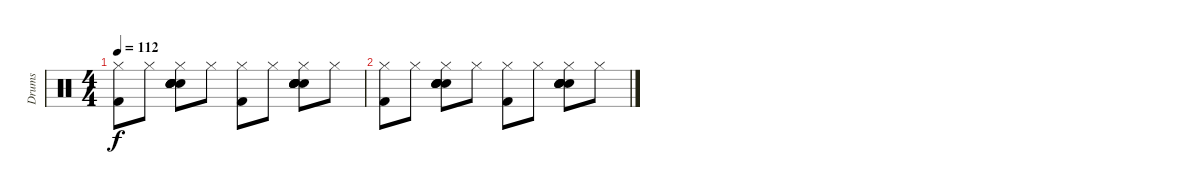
\track ("Drums" "Drums") {instrument percussion}
\staff {score}
\articulation defaults
\ts (4 4)
\tempo 112
\clef neutral
\ks c
("Hi-Hat (closed)" "Kick (hit) 2").8{dy f} "Hi-Hat (closed)".8 ("Hand Clap (hit)" "Hand Clap (hit)" "Hand Clap (hit)" "Hand Clap (hit)" "Hi-Hat (closed)" "Snare (hit) 2").8 "Hi-Hat (closed)".8 ("Hi-Hat (closed)" "Kick (hit) 2").8 "Hi-Hat (closed)".8 ("Hand Clap (hit)" "Hand Clap (hit)" "Hand Clap (hit)" "Hand Clap (hit)" "Hi-Hat (closed)" "Snare (hit) 2").8 "Hi-Hat (closed)".8 |
("Hi-Hat (closed)" "Kick (hit) 2").8 "Hi-Hat (closed)".8 ("Hand Clap (hit)" "Hand Clap (hit)" "Hand Clap (hit)" "Hand Clap (hit)" "Hi-Hat (closed)" "Snare (hit) 2").8 "Hi-Hat (closed)".8 ("Hi-Hat (closed)" "Kick (hit) 2").8 "Hi-Hat (closed)".8 ("Hand Clap (hit)" "Hand Clap (hit)" "Hand Clap (hit)" "Hand Clap (hit)" "Hi-Hat (closed)" "Snare (hit) 2").8 "Hi-Hat (closed)".8
